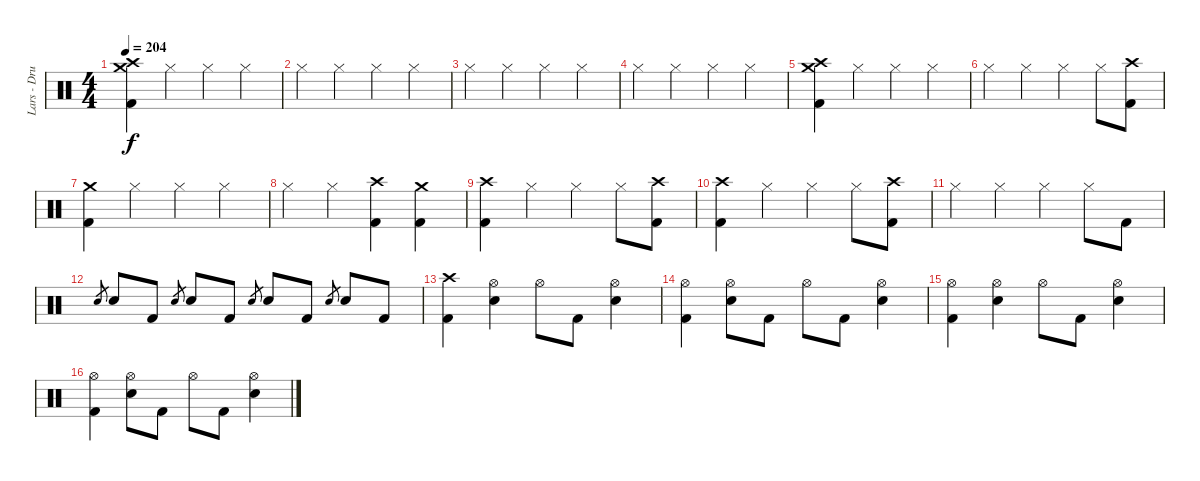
\track ("Lars - Drums" "Lars - Dru") {instrument percussion}
\staff {score}
\articulation defaults
\ts (4 4)
\tempo 204
\clef neutral
\ks c
("Crash high (hit)" "Crash medium (hit)" "Kick (hit) 2").4{dy f} "Hi-Hat (closed)".4 "Hi-Hat (closed)".4 "Hi-Hat (closed)".4 |
"Hi-Hat (closed)".4 "Hi-Hat (closed)".4 "Hi-Hat (closed)".4 "Hi-Hat (closed)".4 |
"Hi-Hat (closed)".4 "Hi-Hat (closed)".4 "Hi-Hat (closed)".4 "Hi-Hat (closed)".4 |
"Hi-Hat (closed)".4 "Hi-Hat (closed)".4 "Hi-Hat (closed)".4 "Hi-Hat (closed)".4 |
("Crash high (hit)" "Crash medium (hit)" "Kick (hit) 2").4 "Hi-Hat (closed)".4 "Hi-Hat (closed)".4 "Hi-Hat (closed)".4 |
"Hi-Hat (closed)".4 "Hi-Hat (closed)".4 "Hi-Hat (closed)".4 "Hi-Hat (closed)".8 ("Crash high (hit)" "Kick (hit) 2").8 |
("Crash medium (hit)" "Kick (hit) 2").4 "Hi-Hat (closed)".4 "Hi-Hat (closed)".4 "Hi-Hat (closed)".4 |
"Hi-Hat (closed)".4 "Hi-Hat (closed)".4 ("Crash high (hit)" "Kick (hit) 2").4 ("Crash medium (hit)" "Kick (hit) 2").4 |
("Crash high (hit)" "Kick (hit) 2").4 "Hi-Hat (closed)".4 "Hi-Hat (closed)".4 "Hi-Hat (closed)".8 ("Crash high (hit)" "Kick (hit) 2").8 |
("Crash high (hit)" "Kick (hit) 2").4 "Hi-Hat (closed)".4 "Hi-Hat (closed)".4 "Hi-Hat (closed)".8 ("Crash high (hit)" "Kick (hit) 2").8 |
"Hi-Hat (closed)".4 "Hi-Hat (closed)".4 "Hi-Hat (closed)".4 "Hi-Hat (closed)".8 "Kick (hit) 2".8 |
"Electric Snare (hit)"{sl}.8{gr} "Electric Snare (hit)".8 "Kick (hit) 2".8 "Electric Snare (hit)"{sl}.8{gr} "Electric Snare (hit)".8 "Kick (hit) 2".8 "Electric Snare (hit)"{sl}.8{gr} "Electric Snare (hit)".8 "Kick (hit) 2".8 "Electric Snare (hit)"{sl}.8{gr} "Electric Snare (hit)".8 "Kick (hit) 2".8 |
("Crash high (hit)" "Kick (hit) 2").4 ("Hi-Hat (open)" "Electric Snare (hit)").4 "Hi-Hat (open)".8 "Kick (hit) 2".8 ("Hi-Hat (open)" "Electric Snare (hit)").4 |
("Hi-Hat (open)" "Kick (hit) 2").4 ("Hi-Hat (open)" "Electric Snare (hit)").8 "Kick (hit) 2".8 "Hi-Hat (open)".8 "Kick (hit) 2".8 ("Hi-Hat (open)" "Electric Snare (hit)").4 |
("Hi-Hat (open)" "Kick (hit) 2").4 ("Hi-Hat (open)" "Electric Snare (hit)").4 "Hi-Hat (open)".8 "Kick (hit) 2".8 ("Hi-Hat (open)" "Electric Snare (hit)").4 |
("Hi-Hat (open)" "Kick (hit) 2").4 ("Hi-Hat (open)" "Electric Snare (hit)").8 "Kick (hit) 2".8 "Hi-Hat (open)".8 "Kick (hit) 2".8 ("Hi-Hat (open)" "Electric Snare (hit)").4
